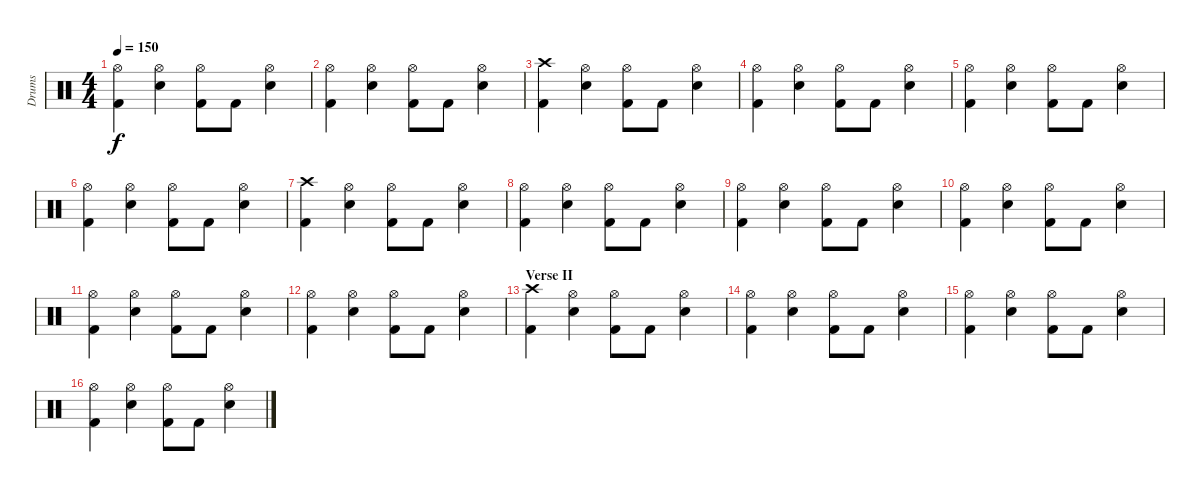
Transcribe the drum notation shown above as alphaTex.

\track ("Drums" "Drums") {instrument percussion}
\staff {score}
\articulation defaults
\ts (4 4)
\tempo 150
\clef neutral
\ks c
("Hi-Hat (open)" "Kick (hit) 2").4{dy f} ("Hi-Hat (open)" "Electric Snare (hit)").4 ("Hi-Hat (open)" "Kick (hit) 2").8 "Kick (hit) 2".8 ("Hi-Hat (open)" "Electric Snare (hit)").4 |
("Hi-Hat (open)" "Kick (hit) 2").4 ("Hi-Hat (open)" "Electric Snare (hit)").4 ("Hi-Hat (open)" "Kick (hit) 2").8 "Kick (hit) 2".8 ("Hi-Hat (open)" "Electric Snare (hit)").4 |
("Crash high (hit)" "Kick (hit) 2").4 ("Hi-Hat (open)" "Electric Snare (hit)").4 ("Hi-Hat (open)" "Kick (hit) 2").8 "Kick (hit) 2".8 ("Hi-Hat (open)" "Electric Snare (hit)").4 |
("Hi-Hat (open)" "Kick (hit) 2").4 ("Hi-Hat (open)" "Electric Snare (hit)").4 ("Hi-Hat (open)" "Kick (hit) 2").8 "Kick (hit) 2".8 ("Hi-Hat (open)" "Electric Snare (hit)").4 |
("Hi-Hat (open)" "Kick (hit) 2").4 ("Hi-Hat (open)" "Electric Snare (hit)").4 ("Hi-Hat (open)" "Kick (hit) 2").8 "Kick (hit) 2".8 ("Hi-Hat (open)" "Electric Snare (hit)").4 |
("Hi-Hat (open)" "Kick (hit) 2").4 ("Hi-Hat (open)" "Electric Snare (hit)").4 ("Hi-Hat (open)" "Kick (hit) 2").8 "Kick (hit) 2".8 ("Hi-Hat (open)" "Electric Snare (hit)").4 |
("Crash high (hit)" "Kick (hit) 2").4 ("Hi-Hat (open)" "Electric Snare (hit)").4 ("Hi-Hat (open)" "Kick (hit) 2").8 "Kick (hit) 2".8 ("Hi-Hat (open)" "Electric Snare (hit)").4 |
("Hi-Hat (open)" "Kick (hit) 2").4 ("Hi-Hat (open)" "Electric Snare (hit)").4 ("Hi-Hat (open)" "Kick (hit) 2").8 "Kick (hit) 2".8 ("Hi-Hat (open)" "Electric Snare (hit)").4 |
("Hi-Hat (open)" "Kick (hit) 2").4 ("Hi-Hat (open)" "Electric Snare (hit)").4 ("Hi-Hat (open)" "Kick (hit) 2").8 "Kick (hit) 2".8 ("Hi-Hat (open)" "Electric Snare (hit)").4 |
("Hi-Hat (open)" "Kick (hit) 2").4 ("Hi-Hat (open)" "Electric Snare (hit)").4 ("Hi-Hat (open)" "Kick (hit) 2").8 "Kick (hit) 2".8 ("Hi-Hat (open)" "Electric Snare (hit)").4 |
("Hi-Hat (open)" "Kick (hit) 2").4 ("Hi-Hat (open)" "Electric Snare (hit)").4 ("Hi-Hat (open)" "Kick (hit) 2").8 "Kick (hit) 2".8 ("Hi-Hat (open)" "Electric Snare (hit)").4 |
("Hi-Hat (open)" "Kick (hit) 2").4 ("Hi-Hat (open)" "Electric Snare (hit)").4 ("Hi-Hat (open)" "Kick (hit) 2").8 "Kick (hit) 2".8 ("Hi-Hat (open)" "Electric Snare (hit)").4 |
\section ("" "Verse II")
("Crash high (hit)" "Kick (hit) 2").4 ("Hi-Hat (open)" "Electric Snare (hit)").4 ("Hi-Hat (open)" "Kick (hit) 2").8 "Kick (hit) 2".8 ("Hi-Hat (open)" "Electric Snare (hit)").4 |
("Hi-Hat (open)" "Kick (hit) 2").4 ("Hi-Hat (open)" "Electric Snare (hit)").4 ("Hi-Hat (open)" "Kick (hit) 2").8 "Kick (hit) 2".8 ("Hi-Hat (open)" "Electric Snare (hit)").4 |
("Hi-Hat (open)" "Kick (hit) 2").4 ("Hi-Hat (open)" "Electric Snare (hit)").4 ("Hi-Hat (open)" "Kick (hit) 2").8 "Kick (hit) 2".8 ("Hi-Hat (open)" "Electric Snare (hit)").4 |
("Hi-Hat (open)" "Kick (hit) 2").4 ("Hi-Hat (open)" "Electric Snare (hit)").4 ("Hi-Hat (open)" "Kick (hit) 2").8 "Kick (hit) 2".8 ("Hi-Hat (open)" "Electric Snare (hit)").4
